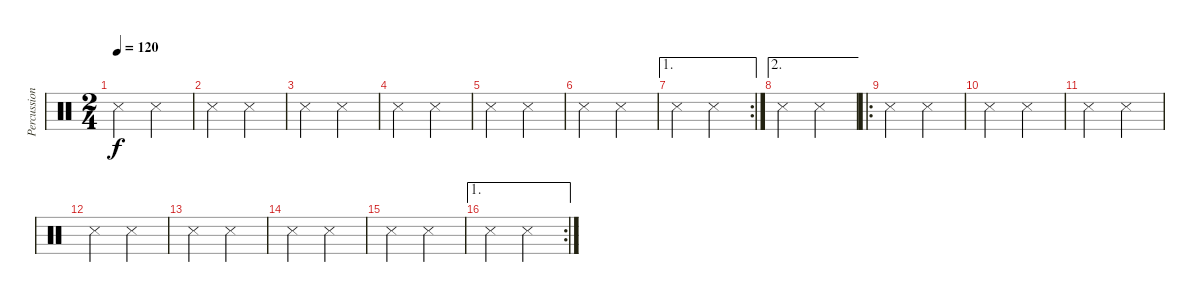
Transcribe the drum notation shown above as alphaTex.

\track ("Percussion" "Percussion") {instrument percussion}
\staff {score}
\articulation defaults
\ts (2 4)
\tempo 120
\clef neutral
\ks aminor "Snare (side stick) 3".4{dy f} "Snare (side stick) 3".4
|
"Snare (side stick) 3".4 "Snare (side stick) 3".4 |
"Snare (side stick) 3".4 "Snare (side stick) 3".4 |
"Snare (side stick) 3".4 "Snare (side stick) 3".4 |
"Snare (side stick) 3".4 "Snare (side stick) 3".4 |
"Snare (side stick) 3".4 "Snare (side stick) 3".4 |
\ae 1
\rc 2 "Snare (side stick) 3".4 "Snare (side stick) 3".4
|
\ae 2 "Snare (side stick) 3".4 "Snare (side stick) 3".4
|
\ro "Snare (side stick) 3".4 "Snare (side stick) 3".4
|
"Snare (side stick) 3".4 "Snare (side stick) 3".4 |
"Snare (side stick) 3".4 "Snare (side stick) 3".4 |
"Snare (side stick) 3".4 "Snare (side stick) 3".4 |
"Snare (side stick) 3".4 "Snare (side stick) 3".4 |
"Snare (side stick) 3".4 "Snare (side stick) 3".4 |
"Snare (side stick) 3".4 "Snare (side stick) 3".4 |
\ae 1
\rc 2 "Snare (side stick) 3".4 "Snare (side stick) 3".4
